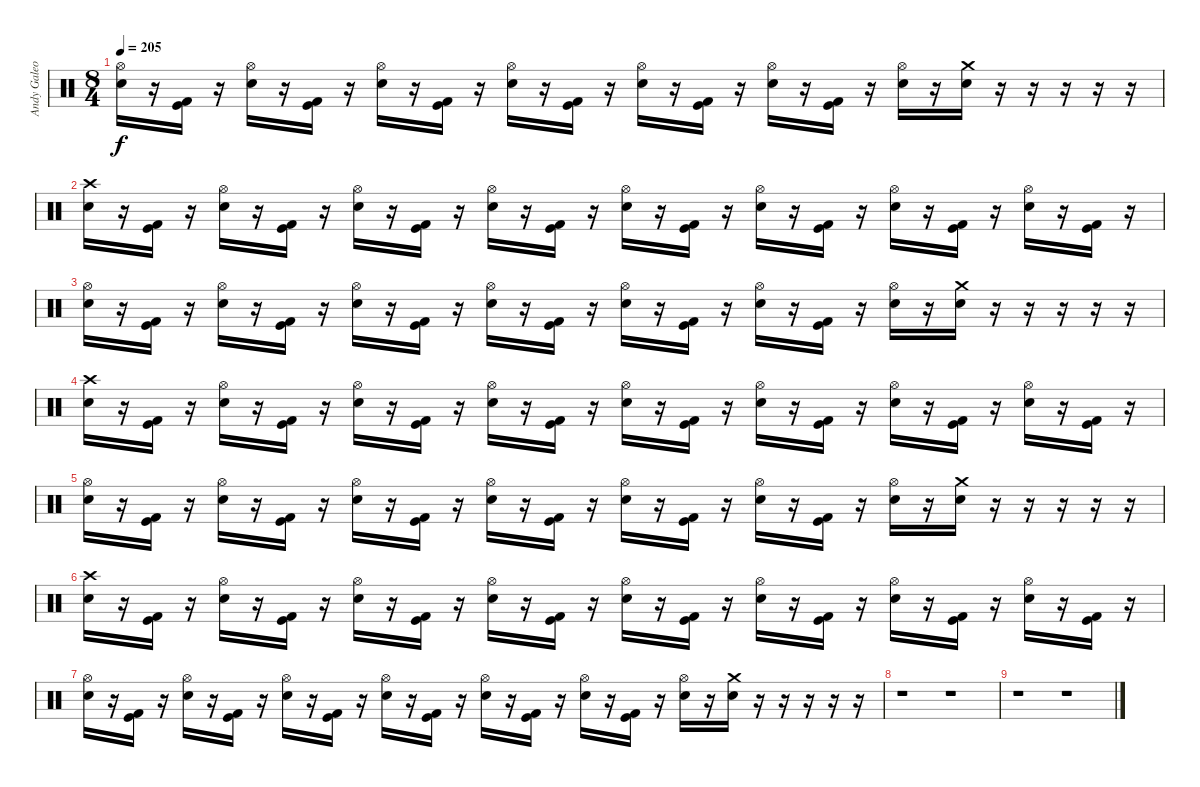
\track ("Andy Galeon - Drums" "Andy Galeo") {instrument percussion}
\staff {score}
\articulation defaults
\ts (8 4)
\tempo 205
\clef neutral
\ks c
("Hi-Hat (open)" "Electric Snare (hit)").16{dy f} r.16 ("Kick (hit) 2" "Kick (hit)").16 r.16 ("Hi-Hat (open)" "Electric Snare (hit)").16 r.16 ("Kick (hit) 2" "Kick (hit)").16 r.16 ("Hi-Hat (open)" "Electric Snare (hit)").16 r.16 ("Kick (hit) 2" "Kick (hit)").16 r.16 ("Hi-Hat (open)" "Electric Snare (hit)").16 r.16 ("Kick (hit) 2" "Kick (hit)").16 r.16 ("Hi-Hat (open)" "Electric Snare (hit)").16 r.16 ("Kick (hit) 2" "Kick (hit)").16 r.16 ("Hi-Hat (open)" "Electric Snare (hit)").16 r.16 ("Kick (hit) 2" "Kick (hit)").16 r.16 ("Hi-Hat (open)" "Electric Snare (hit)").16 r.16 ("Crash medium (hit)" "Electric Snare (hit)").16 r.16 r.16 r.16 r.16 r.16 |
("Crash high (hit)" "Electric Snare (hit)").16 r.16 ("Kick (hit) 2" "Kick (hit)").16 r.16 ("Hi-Hat (open)" "Electric Snare (hit)").16 r.16 ("Kick (hit) 2" "Kick (hit)").16 r.16 ("Hi-Hat (open)" "Electric Snare (hit)").16 r.16 ("Kick (hit) 2" "Kick (hit)").16 r.16 ("Hi-Hat (open)" "Electric Snare (hit)").16 r.16 ("Kick (hit) 2" "Kick (hit)").16 r.16 ("Hi-Hat (open)" "Electric Snare (hit)").16 r.16 ("Kick (hit) 2" "Kick (hit)").16 r.16 ("Hi-Hat (open)" "Electric Snare (hit)").16 r.16 ("Kick (hit) 2" "Kick (hit)").16 r.16 ("Hi-Hat (open)" "Electric Snare (hit)").16 r.16 ("Kick (hit) 2" "Kick (hit)").16 r.16 ("Hi-Hat (open)" "Electric Snare (hit)").16 r.16 ("Kick (hit) 2" "Kick (hit)").16 r.16 |
("Hi-Hat (open)" "Electric Snare (hit)").16 r.16 ("Kick (hit) 2" "Kick (hit)").16 r.16 ("Hi-Hat (open)" "Electric Snare (hit)").16 r.16 ("Kick (hit) 2" "Kick (hit)").16 r.16 ("Hi-Hat (open)" "Electric Snare (hit)").16 r.16 ("Kick (hit) 2" "Kick (hit)").16 r.16 ("Hi-Hat (open)" "Electric Snare (hit)").16 r.16 ("Kick (hit) 2" "Kick (hit)").16 r.16 ("Hi-Hat (open)" "Electric Snare (hit)").16 r.16 ("Kick (hit) 2" "Kick (hit)").16 r.16 ("Hi-Hat (open)" "Electric Snare (hit)").16 r.16 ("Kick (hit) 2" "Kick (hit)").16 r.16 ("Hi-Hat (open)" "Electric Snare (hit)").16 r.16 ("Crash medium (hit)" "Electric Snare (hit)").16 r.16 r.16 r.16 r.16 r.16 |
("Crash high (hit)" "Electric Snare (hit)").16 r.16 ("Kick (hit) 2" "Kick (hit)").16 r.16 ("Hi-Hat (open)" "Electric Snare (hit)").16 r.16 ("Kick (hit) 2" "Kick (hit)").16 r.16 ("Hi-Hat (open)" "Electric Snare (hit)").16 r.16 ("Kick (hit) 2" "Kick (hit)").16 r.16 ("Hi-Hat (open)" "Electric Snare (hit)").16 r.16 ("Kick (hit) 2" "Kick (hit)").16 r.16 ("Hi-Hat (open)" "Electric Snare (hit)").16 r.16 ("Kick (hit) 2" "Kick (hit)").16 r.16 ("Hi-Hat (open)" "Electric Snare (hit)").16 r.16 ("Kick (hit) 2" "Kick (hit)").16 r.16 ("Hi-Hat (open)" "Electric Snare (hit)").16 r.16 ("Kick (hit) 2" "Kick (hit)").16 r.16 ("Hi-Hat (open)" "Electric Snare (hit)").16 r.16 ("Kick (hit) 2" "Kick (hit)").16 r.16 |
("Hi-Hat (open)" "Electric Snare (hit)").16 r.16 ("Kick (hit) 2" "Kick (hit)").16 r.16 ("Hi-Hat (open)" "Electric Snare (hit)").16 r.16 ("Kick (hit) 2" "Kick (hit)").16 r.16 ("Hi-Hat (open)" "Electric Snare (hit)").16 r.16 ("Kick (hit) 2" "Kick (hit)").16 r.16 ("Hi-Hat (open)" "Electric Snare (hit)").16 r.16 ("Kick (hit) 2" "Kick (hit)").16 r.16 ("Hi-Hat (open)" "Electric Snare (hit)").16 r.16 ("Kick (hit) 2" "Kick (hit)").16 r.16 ("Hi-Hat (open)" "Electric Snare (hit)").16 r.16 ("Kick (hit) 2" "Kick (hit)").16 r.16 ("Hi-Hat (open)" "Electric Snare (hit)").16 r.16 ("Crash medium (hit)" "Electric Snare (hit)").16 r.16 r.16 r.16 r.16 r.16 |
("Crash high (hit)" "Electric Snare (hit)").16 r.16 ("Kick (hit) 2" "Kick (hit)").16 r.16 ("Hi-Hat (open)" "Electric Snare (hit)").16 r.16 ("Kick (hit) 2" "Kick (hit)").16 r.16 ("Hi-Hat (open)" "Electric Snare (hit)").16 r.16 ("Kick (hit) 2" "Kick (hit)").16 r.16 ("Hi-Hat (open)" "Electric Snare (hit)").16 r.16 ("Kick (hit) 2" "Kick (hit)").16 r.16 ("Hi-Hat (open)" "Electric Snare (hit)").16 r.16 ("Kick (hit) 2" "Kick (hit)").16 r.16 ("Hi-Hat (open)" "Electric Snare (hit)").16 r.16 ("Kick (hit) 2" "Kick (hit)").16 r.16 ("Hi-Hat (open)" "Electric Snare (hit)").16 r.16 ("Kick (hit) 2" "Kick (hit)").16 r.16 ("Hi-Hat (open)" "Electric Snare (hit)").16 r.16 ("Kick (hit) 2" "Kick (hit)").16 r.16 |
("Hi-Hat (open)" "Electric Snare (hit)").16 r.16 ("Kick (hit) 2" "Kick (hit)").16 r.16 ("Hi-Hat (open)" "Electric Snare (hit)").16 r.16 ("Kick (hit) 2" "Kick (hit)").16 r.16 ("Hi-Hat (open)" "Electric Snare (hit)").16 r.16 ("Kick (hit) 2" "Kick (hit)").16 r.16 ("Hi-Hat (open)" "Electric Snare (hit)").16 r.16 ("Kick (hit) 2" "Kick (hit)").16 r.16 ("Hi-Hat (open)" "Electric Snare (hit)").16 r.16 ("Kick (hit) 2" "Kick (hit)").16 r.16 ("Hi-Hat (open)" "Electric Snare (hit)").16 r.16 ("Kick (hit) 2" "Kick (hit)").16 r.16 ("Hi-Hat (open)" "Electric Snare (hit)").16 r.16 ("Crash medium (hit)" "Electric Snare (hit)").16 r.16 r.16 r.16 r.16 r.16 |
r.1 r.1 |
r.1 r.1
